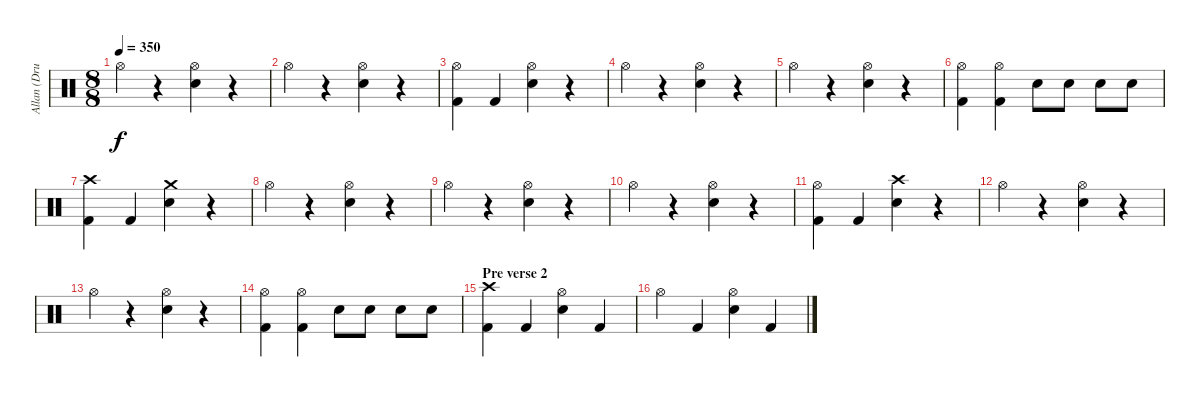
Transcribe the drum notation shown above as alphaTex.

\track ("Allan (Drums)" "Allan (Dru") {instrument percussion}
\staff {score}
\articulation defaults
\ts (8 8)
\tempo 350
\clef neutral
\ks c "Hi-Hat (open)".4{dy f}
r.4 ("Hi-Hat (open)" "Snare (hit) 2").4 r.4 |
"Hi-Hat (open)".4 r.4 ("Hi-Hat (open)" "Snare (hit) 2").4 r.4 |
("Hi-Hat (open)" "Kick (hit) 2").4 "Kick (hit) 2".4 ("Hi-Hat (open)" "Snare (hit) 2").4 r.4 |
"Hi-Hat (open)".4 r.4 ("Hi-Hat (open)" "Snare (hit) 2").4 r.4 |
"Hi-Hat (open)".4 r.4 ("Hi-Hat (open)" "Snare (hit) 2").4 r.4 |
("Hi-Hat (open)" "Kick (hit) 2").4 ("Hi-Hat (open)" "Kick (hit) 2").4 "Snare (hit) 2".8 "Snare (hit) 2".8 "Snare (hit) 2".8 "Snare (hit) 2".8 |
("Crash high (hit)" "Kick (hit) 2").4 "Kick (hit) 2".4 ("Crash medium (hit)" "Snare (hit) 2").4 r.4 |
"Hi-Hat (open)".4 r.4 ("Hi-Hat (open)" "Snare (hit) 2").4 r.4 |
"Hi-Hat (open)".4 r.4 ("Hi-Hat (open)" "Snare (hit) 2").4 r.4 |
"Hi-Hat (open)".4 r.4 ("Hi-Hat (open)" "Snare (hit) 2").4 r.4 |
("Hi-Hat (open)" "Kick (hit) 2").4 "Kick (hit) 2".4 ("Crash high (hit)" "Snare (hit) 2").4 r.4 |
"Hi-Hat (open)".4 r.4 ("Hi-Hat (open)" "Snare (hit) 2").4 r.4 |
"Hi-Hat (open)".4 r.4 ("Hi-Hat (open)" "Snare (hit) 2").4 r.4 |
("Hi-Hat (open)" "Kick (hit) 2").4 ("Hi-Hat (open)" "Kick (hit) 2").4 "Snare (hit) 2".8 "Snare (hit) 2".8 "Snare (hit) 2".8 "Snare (hit) 2".8 |
\section ("" "Pre verse 2")
("Crash high (hit)" "Kick (hit) 2").4 "Kick (hit) 2".4 ("Hi-Hat (open)" "Snare (hit) 2").4 "Kick (hit) 2".4 |
"Hi-Hat (open)".4 "Kick (hit) 2".4 ("Hi-Hat (open)" "Snare (hit) 2").4 "Kick (hit) 2".4
